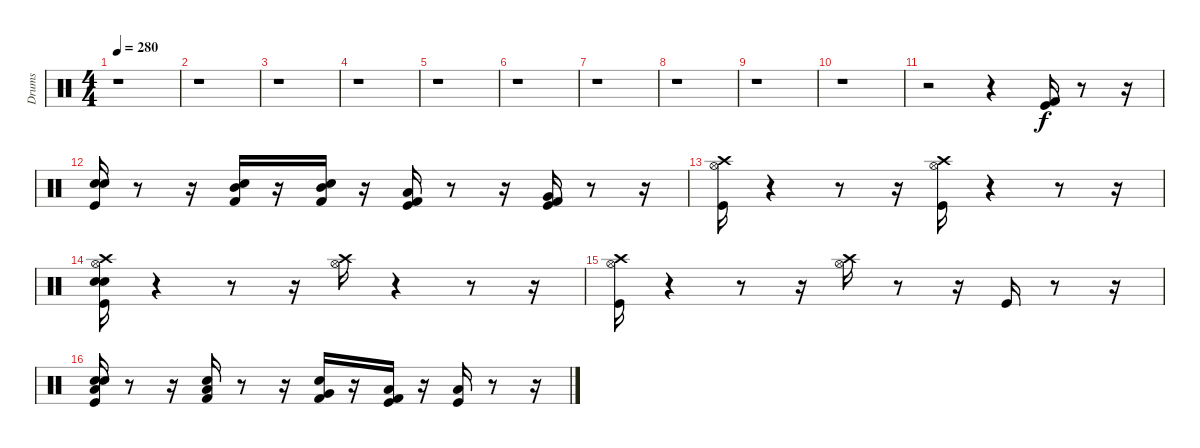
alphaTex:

\track ("Drums" "Drums") {instrument percussion}
\staff {score}
\articulation defaults
\ts (4 4)
\tempo 280
\clef neutral
\ks c
r.1{dy f} |
r.1 |
r.1 |
r.1 |
r.1 |
r.1 |
r.1 |
r.1 |
r.1 |
r.1 |
r.2 r.4 ("Kick (hit) 2" "Kick (hit)").16 r.8 r.16 |
("Snare (hit) 2" "Electric Snare (hit)" "Kick (hit)").16 r.8 r.16 ("Snare (hit) 2" "Kick (hit) 2" "Mid Tom (hit)").16 r.16 ("Snare (hit) 2" "Kick (hit) 2" "Mid Tom (hit)").16 r.16 ("Kick (hit) 2" "Kick (hit)" "Low Tom (hit)").16 r.8 r.16 ("Kick (hit)" "Kick (hit) 2" "Very Low Tom (hit)").16 r.8 r.16 |
("Crash high (hit)" "Hi-Hat (open)" "Kick (hit)").16 r.4 r.8 r.16 ("Crash high (hit)" "Hi-Hat (open)" "Kick (hit)").16 r.4 r.8 r.16 |
("Kick (hit)" "Electric Snare (hit)" "Snare (hit) 2" "Crash high (hit)" "Hi-Hat (open)").16 r.4 r.8 r.16 ("Hi-Hat (open)" "Crash high (hit)").16 r.4 r.8 r.16 |
("Kick (hit)" "Hi-Hat (open)" "Crash high (hit)").16 r.4 r.8 r.16 ("Hi-Hat (open)" "Crash high (hit)").16 r.8 r.16 "Kick (hit)".16 r.8 r.16 |
("Electric Snare (hit)" "Snare (hit) 2" "Kick (hit)" "Low Tom (hit)").16 r.8 r.16 ("Snare (hit) 2" "Kick (hit) 2" "Low Tom (hit)").16 r.8 r.16 ("Snare (hit) 2" "Kick (hit) 2" "Very Low Tom (hit)").16 r.16 ("Kick (hit) 2" "Kick (hit)" "Low Floor Tom (hit)").16 r.16 ("Kick (hit)" "Low Floor Tom (hit)").16 r.8 r.16
